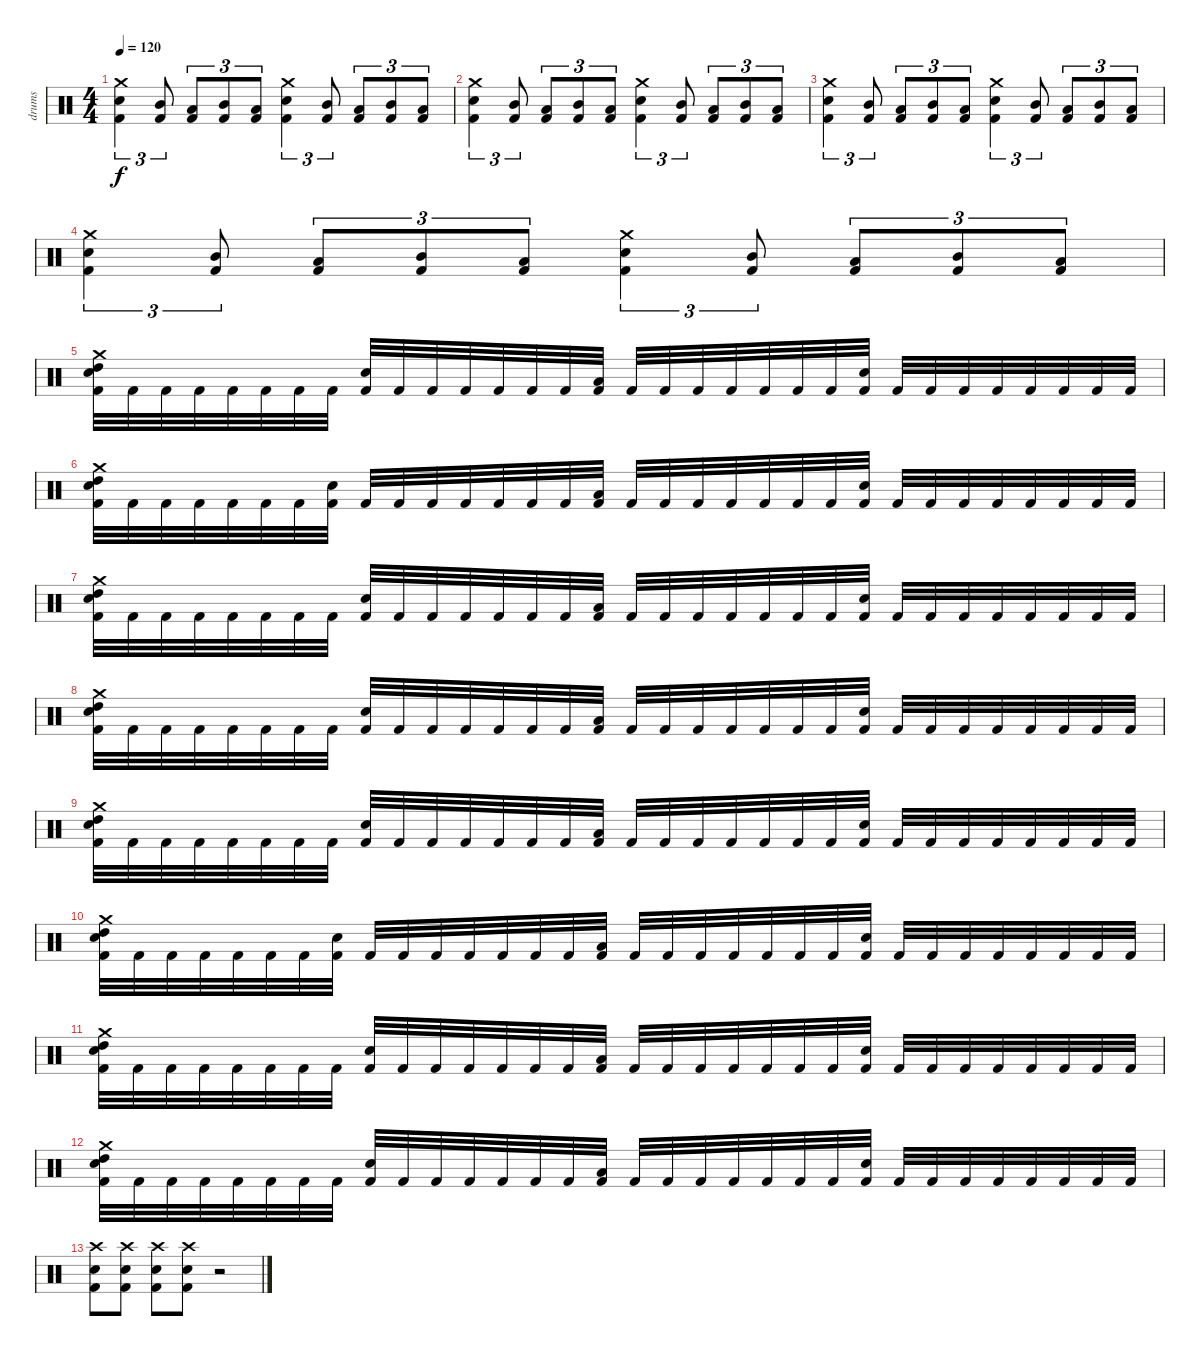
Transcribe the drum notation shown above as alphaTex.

\track ("drums" "drums") {instrument percussion}
\staff {score}
\articulation defaults
\ts (4 4)
\tempo 120
\clef neutral
\ks c
("Crash medium (hit)" "Electric Snare (hit)" "Kick (hit) 2").4{tu (3 2) dy f} ("Mid Tom (hit)" "Kick (hit) 2").8{tu (3 2)} ("Low Tom (hit)" "Kick (hit) 2").8{tu (3 2)} ("Mid Tom (hit)" "Kick (hit) 2").8{tu (3 2)} ("Low Tom (hit)" "Kick (hit) 2").8{tu (3 2)} ("Crash medium (hit)" "Electric Snare (hit)" "Kick (hit) 2").4{tu (3 2)} ("Mid Tom (hit)" "Kick (hit) 2").8{tu (3 2)} ("Low Tom (hit)" "Kick (hit) 2").8{tu (3 2)} ("Mid Tom (hit)" "Kick (hit) 2").8{tu (3 2)} ("Low Tom (hit)" "Kick (hit) 2").8{tu (3 2)} |
("Crash medium (hit)" "Electric Snare (hit)" "Kick (hit) 2").4{tu (3 2)} ("Mid Tom (hit)" "Kick (hit) 2").8{tu (3 2)} ("Low Tom (hit)" "Kick (hit) 2").8{tu (3 2)} ("Mid Tom (hit)" "Kick (hit) 2").8{tu (3 2)} ("Low Tom (hit)" "Kick (hit) 2").8{tu (3 2)} ("Crash medium (hit)" "Electric Snare (hit)" "Kick (hit) 2").4{tu (3 2)} ("Mid Tom (hit)" "Kick (hit) 2").8{tu (3 2)} ("Low Tom (hit)" "Kick (hit) 2").8{tu (3 2)} ("Mid Tom (hit)" "Kick (hit) 2").8{tu (3 2)} ("Low Tom (hit)" "Kick (hit) 2").8{tu (3 2)} |
("Crash medium (hit)" "Electric Snare (hit)" "Kick (hit) 2").4{tu (3 2)} ("Mid Tom (hit)" "Kick (hit) 2").8{tu (3 2)} ("Low Tom (hit)" "Kick (hit) 2").8{tu (3 2)} ("Mid Tom (hit)" "Kick (hit) 2").8{tu (3 2)} ("Low Tom (hit)" "Kick (hit) 2").8{tu (3 2)} ("Crash medium (hit)" "Electric Snare (hit)" "Kick (hit) 2").4{tu (3 2)} ("Mid Tom (hit)" "Kick (hit) 2").8{tu (3 2)} ("Low Tom (hit)" "Kick (hit) 2").8{tu (3 2)} ("Mid Tom (hit)" "Kick (hit) 2").8{tu (3 2)} ("Low Tom (hit)" "Kick (hit) 2").8{tu (3 2)} |
("Crash medium (hit)" "Electric Snare (hit)" "Kick (hit) 2").4{tu (3 2)} ("Mid Tom (hit)" "Kick (hit) 2").8{tu (3 2)} ("Low Tom (hit)" "Kick (hit) 2").8{tu (3 2)} ("Mid Tom (hit)" "Kick (hit) 2").8{tu (3 2)} ("Low Tom (hit)" "Kick (hit) 2").8{tu (3 2)} ("Crash medium (hit)" "Electric Snare (hit)" "Kick (hit) 2").4{tu (3 2)} ("Mid Tom (hit)" "Kick (hit) 2").8{tu (3 2)} ("Low Tom (hit)" "Kick (hit) 2").8{tu (3 2)} ("Mid Tom (hit)" "Kick (hit) 2").8{tu (3 2)} ("Low Tom (hit)" "Kick (hit) 2").8{tu (3 2)} |
("High Tom (hit)" "Electric Snare (hit)" "Crash medium (hit)" "Kick (hit) 2").32 "Kick (hit) 2".32 "Kick (hit) 2".32 "Kick (hit) 2".32 "Kick (hit) 2".32 "Kick (hit) 2".32 "Kick (hit) 2".32 "Kick (hit) 2".32 ("Electric Snare (hit)" "Kick (hit) 2").32 "Kick (hit) 2".32 "Kick (hit) 2".32 "Kick (hit) 2".32 "Kick (hit) 2".32 "Kick (hit) 2".32 "Kick (hit) 2".32 ("Low Floor Tom (hit)" "Kick (hit) 2").32 "Kick (hit) 2".32 "Kick (hit) 2".32 "Kick (hit) 2".32 "Kick (hit) 2".32 "Kick (hit) 2".32 "Kick (hit) 2".32 "Kick (hit) 2".32 ("Electric Snare (hit)" "Kick (hit) 2").32 "Kick (hit) 2".32 "Kick (hit) 2".32 "Kick (hit) 2".32 "Kick (hit) 2".32 "Kick (hit) 2".32 "Kick (hit) 2".32 "Kick (hit) 2".32 "Kick (hit) 2".32 |
("Crash medium (hit)" "Electric Snare (hit)" "High Tom (hit)" "Kick (hit) 2").32 "Kick (hit) 2".32 "Kick (hit) 2".32 "Kick (hit) 2".32 "Kick (hit) 2".32 "Kick (hit) 2".32 "Kick (hit) 2".32 ("Electric Snare (hit)" "Kick (hit) 2").32 "Kick (hit) 2".32 "Kick (hit) 2".32 "Kick (hit) 2".32 "Kick (hit) 2".32 "Kick (hit) 2".32 "Kick (hit) 2".32 "Kick (hit) 2".32 ("Low Floor Tom (hit)" "Kick (hit) 2").32 "Kick (hit) 2".32 "Kick (hit) 2".32 "Kick (hit) 2".32 "Kick (hit) 2".32 "Kick (hit) 2".32 "Kick (hit) 2".32 "Kick (hit) 2".32 ("Electric Snare (hit)" "Kick (hit) 2").32 "Kick (hit) 2".32 "Kick (hit) 2".32 "Kick (hit) 2".32 "Kick (hit) 2".32 "Kick (hit) 2".32 "Kick (hit) 2".32 "Kick (hit) 2".32 "Kick (hit) 2".32 |
("Crash medium (hit)" "Electric Snare (hit)" "High Tom (hit)" "Kick (hit) 2").32 "Kick (hit) 2".32 "Kick (hit) 2".32 "Kick (hit) 2".32 "Kick (hit) 2".32 "Kick (hit) 2".32 "Kick (hit) 2".32 "Kick (hit) 2".32 ("Electric Snare (hit)" "Kick (hit) 2").32 "Kick (hit) 2".32 "Kick (hit) 2".32 "Kick (hit) 2".32 "Kick (hit) 2".32 "Kick (hit) 2".32 "Kick (hit) 2".32 ("Low Floor Tom (hit)" "Kick (hit) 2").32 "Kick (hit) 2".32 "Kick (hit) 2".32 "Kick (hit) 2".32 "Kick (hit) 2".32 "Kick (hit) 2".32 "Kick (hit) 2".32 "Kick (hit) 2".32 ("Electric Snare (hit)" "Kick (hit) 2").32 "Kick (hit) 2".32 "Kick (hit) 2".32 "Kick (hit) 2".32 "Kick (hit) 2".32 "Kick (hit) 2".32 "Kick (hit) 2".32 "Kick (hit) 2".32 "Kick (hit) 2".32 |
("Crash medium (hit)" "Electric Snare (hit)" "High Tom (hit)" "Kick (hit) 2").32 "Kick (hit) 2".32 "Kick (hit) 2".32 "Kick (hit) 2".32 "Kick (hit) 2".32 "Kick (hit) 2".32 "Kick (hit) 2".32 "Kick (hit) 2".32 ("Electric Snare (hit)" "Kick (hit) 2").32 "Kick (hit) 2".32 "Kick (hit) 2".32 "Kick (hit) 2".32 "Kick (hit) 2".32 "Kick (hit) 2".32 "Kick (hit) 2".32 ("Low Floor Tom (hit)" "Kick (hit) 2").32 "Kick (hit) 2".32 "Kick (hit) 2".32 "Kick (hit) 2".32 "Kick (hit) 2".32 "Kick (hit) 2".32 "Kick (hit) 2".32 "Kick (hit) 2".32 ("Electric Snare (hit)" "Kick (hit) 2").32 "Kick (hit) 2".32 "Kick (hit) 2".32 "Kick (hit) 2".32 "Kick (hit) 2".32 "Kick (hit) 2".32 "Kick (hit) 2".32 "Kick (hit) 2".32 "Kick (hit) 2".32 |
("High Tom (hit)" "Electric Snare (hit)" "Crash medium (hit)" "Kick (hit) 2").32 "Kick (hit) 2".32 "Kick (hit) 2".32 "Kick (hit) 2".32 "Kick (hit) 2".32 "Kick (hit) 2".32 "Kick (hit) 2".32 "Kick (hit) 2".32 ("Electric Snare (hit)" "Kick (hit) 2").32 "Kick (hit) 2".32 "Kick (hit) 2".32 "Kick (hit) 2".32 "Kick (hit) 2".32 "Kick (hit) 2".32 "Kick (hit) 2".32 ("Low Floor Tom (hit)" "Kick (hit) 2").32 "Kick (hit) 2".32 "Kick (hit) 2".32 "Kick (hit) 2".32 "Kick (hit) 2".32 "Kick (hit) 2".32 "Kick (hit) 2".32 "Kick (hit) 2".32 ("Electric Snare (hit)" "Kick (hit) 2").32 "Kick (hit) 2".32 "Kick (hit) 2".32 "Kick (hit) 2".32 "Kick (hit) 2".32 "Kick (hit) 2".32 "Kick (hit) 2".32 "Kick (hit) 2".32 "Kick (hit) 2".32 |
("Crash medium (hit)" "Electric Snare (hit)" "High Tom (hit)" "Kick (hit) 2").32 "Kick (hit) 2".32 "Kick (hit) 2".32 "Kick (hit) 2".32 "Kick (hit) 2".32 "Kick (hit) 2".32 "Kick (hit) 2".32 ("Electric Snare (hit)" "Kick (hit) 2").32 "Kick (hit) 2".32 "Kick (hit) 2".32 "Kick (hit) 2".32 "Kick (hit) 2".32 "Kick (hit) 2".32 "Kick (hit) 2".32 "Kick (hit) 2".32 ("Low Floor Tom (hit)" "Kick (hit) 2").32 "Kick (hit) 2".32 "Kick (hit) 2".32 "Kick (hit) 2".32 "Kick (hit) 2".32 "Kick (hit) 2".32 "Kick (hit) 2".32 "Kick (hit) 2".32 ("Electric Snare (hit)" "Kick (hit) 2").32 "Kick (hit) 2".32 "Kick (hit) 2".32 "Kick (hit) 2".32 "Kick (hit) 2".32 "Kick (hit) 2".32 "Kick (hit) 2".32 "Kick (hit) 2".32 "Kick (hit) 2".32 |
("Crash medium (hit)" "Electric Snare (hit)" "High Tom (hit)" "Kick (hit) 2").32 "Kick (hit) 2".32 "Kick (hit) 2".32 "Kick (hit) 2".32 "Kick (hit) 2".32 "Kick (hit) 2".32 "Kick (hit) 2".32 "Kick (hit) 2".32 ("Electric Snare (hit)" "Kick (hit) 2").32 "Kick (hit) 2".32 "Kick (hit) 2".32 "Kick (hit) 2".32 "Kick (hit) 2".32 "Kick (hit) 2".32 "Kick (hit) 2".32 ("Low Floor Tom (hit)" "Kick (hit) 2").32 "Kick (hit) 2".32 "Kick (hit) 2".32 "Kick (hit) 2".32 "Kick (hit) 2".32 "Kick (hit) 2".32 "Kick (hit) 2".32 "Kick (hit) 2".32 ("Electric Snare (hit)" "Kick (hit) 2").32 "Kick (hit) 2".32 "Kick (hit) 2".32 "Kick (hit) 2".32 "Kick (hit) 2".32 "Kick (hit) 2".32 "Kick (hit) 2".32 "Kick (hit) 2".32 "Kick (hit) 2".32 |
("Crash medium (hit)" "Electric Snare (hit)" "High Tom (hit)" "Kick (hit) 2").32 "Kick (hit) 2".32 "Kick (hit) 2".32 "Kick (hit) 2".32 "Kick (hit) 2".32 "Kick (hit) 2".32 "Kick (hit) 2".32 "Kick (hit) 2".32 ("Electric Snare (hit)" "Kick (hit) 2").32 "Kick (hit) 2".32 "Kick (hit) 2".32 "Kick (hit) 2".32 "Kick (hit) 2".32 "Kick (hit) 2".32 "Kick (hit) 2".32 ("Low Floor Tom (hit)" "Kick (hit) 2").32 "Kick (hit) 2".32 "Kick (hit) 2".32 "Kick (hit) 2".32 "Kick (hit) 2".32 "Kick (hit) 2".32 "Kick (hit) 2".32 "Kick (hit) 2".32 ("Electric Snare (hit)" "Kick (hit) 2").32 "Kick (hit) 2".32 "Kick (hit) 2".32 "Kick (hit) 2".32 "Kick (hit) 2".32 "Kick (hit) 2".32 "Kick (hit) 2".32 "Kick (hit) 2".32 "Kick (hit) 2".32 |
("Crash high (hit)" "Electric Snare (hit)" "Kick (hit) 2").8 ("Crash high (hit)" "Electric Snare (hit)" "Kick (hit) 2").8 ("Crash high (hit)" "Electric Snare (hit)" "Kick (hit) 2").8 ("Crash high (hit)" "Electric Snare (hit)" "Kick (hit) 2").8 r.2
